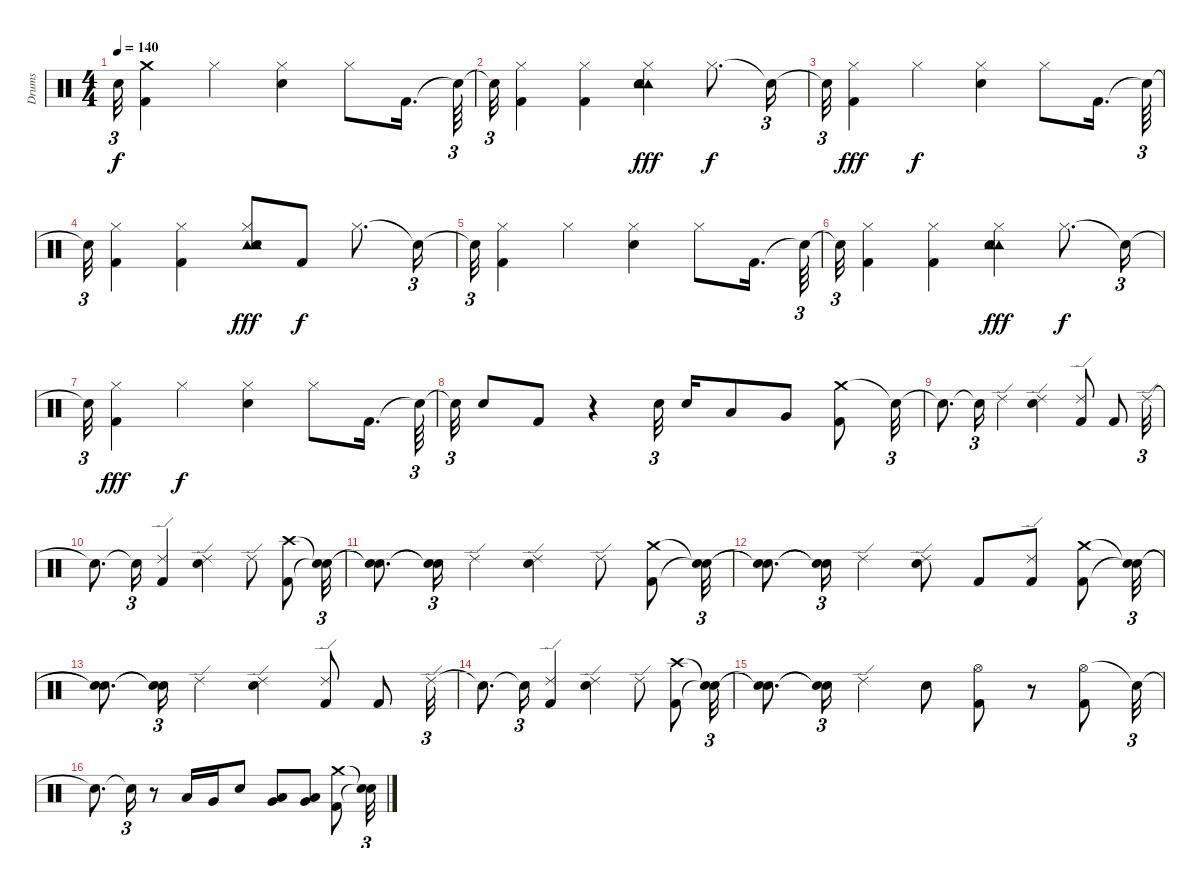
\track ("Drums" "Drums") {instrument percussion}
\staff {score}
\articulation defaults
\ts (4 4)
\tempo 140
\clef neutral
\ks c "Snare (hit)"{t}.32{tu (3 2) dy f}
("Crash medium (hit)" "Kick (hit) 2").4 "Hi-Hat (closed)".4 ("Hi-Hat (closed)" "Snare (hit) 2").4 "Hi-Hat (closed)".8 "Kick (hit) 2".16{d} "Snare (hit)"{t}.64{tu (3 2)} |
"Snare (hit)"{t}.32{tu (3 2)} ("Kick (hit) 2" "Hi-Hat (closed)").4 ("Kick (hit) 2" "Hi-Hat (closed)").4 ("Tambourine (hit)" "Tambourine (hit)" "Snare (hit) 2" "Hi-Hat (closed)").4{dy fff} "Hi-Hat (closed)".8{d dy f} "Snare (hit)"{t}.16{tu (3 2)} |
"Snare (hit)"{t}.32{tu (3 2)} ("Hi-Hat (closed)" "Kick (hit) 2").4{dy fff} "Hi-Hat (closed)".4{dy f} ("Hi-Hat (closed)" "Snare (hit) 2").4 "Hi-Hat (closed)".8 "Kick (hit) 2".16{d} "Snare (hit)"{t}.64{tu (3 2)} |
"Snare (hit)"{t}.32{tu (3 2)} ("Kick (hit) 2" "Hi-Hat (closed)").4 ("Kick (hit) 2" "Hi-Hat (closed)").4 ("Tambourine (hit)" "Tambourine (hit)" "Snare (hit) 2" "Hi-Hat (closed)").8{dy fff} "Kick (hit) 2".8{dy f} "Hi-Hat (closed)".8{d} "Snare (hit)"{t}.16{tu (3 2)} |
"Snare (hit)"{t}.32{tu (3 2)} ("Hi-Hat (closed)" "Kick (hit) 2").4 "Hi-Hat (closed)".4 ("Hi-Hat (closed)" "Snare (hit) 2").4 "Hi-Hat (closed)".8 "Kick (hit) 2".16{d} "Snare (hit)"{t}.64{tu (3 2)} |
"Snare (hit)"{t}.32{tu (3 2)} ("Kick (hit) 2" "Hi-Hat (closed)").4 ("Kick (hit) 2" "Hi-Hat (closed)").4 ("Tambourine (hit)" "Snare (hit) 2" "Tambourine (hit)" "Hi-Hat (closed)").4{dy fff} "Hi-Hat (closed)".8{d dy f} "Snare (hit)"{t}.16{tu (3 2)} |
"Snare (hit)"{t}.32{tu (3 2)} ("Hi-Hat (closed)" "Kick (hit) 2").4{dy fff} "Hi-Hat (closed)".4{dy f} ("Snare (hit) 2" "Hi-Hat (closed)").4 "Hi-Hat (closed)".8 "Kick (hit) 2".16{d} "Snare (hit)"{t}.64{tu (3 2)} |
"Snare (hit)"{t}.32{tu (3 2)} "Snare (hit) 2".8 "Kick (hit) 2".8 r.4 "Snare (hit) 2".32{tu (3 2)} "Snare (hit) 2".16 "Low Tom (hit)".8 "Very Low Tom (hit)".8 ("Crash medium (hit)" "Kick (hit) 2").8 "Snare (hit)"{t}.32{tu (3 2)} |
"Snare (hit)"{t}.8{d} "Snare (hit)"{t}.16{tu (3 2)} "Ride (edge) 2".4 ("Snare (hit) 2" "Ride (edge) 2").4 ("Ride (edge) 2" "Kick (hit) 2").8 "Kick (hit) 2".8 "Ride (edge) 2".32{tu (3 2)} |
"Snare (hit)"{t}.8{d} "Snare (hit)"{t}.16{tu (3 2)} ("Kick (hit) 2" "Ride (edge) 2").4 ("Ride (edge) 2" "Snare (hit) 2").4 "Ride (edge) 2".8 ("Crash high (hit)" "Kick (hit) 2").8 ("Snare (hit)"{t} "Snare (hit)"{t}).32{tu (3 2)} |
("Snare (hit)"{t} "Snare (hit)"{t}).8{d} ("Snare (hit)"{t} "Snare (hit)"{t}).16{tu (3 2)} "Ride (edge) 2".4 ("Snare (hit) 2" "Ride (edge) 2").4 "Ride (edge) 2".8 ("Crash medium (hit)" "Kick (hit) 2").8 ("Snare (hit)"{t} "Snare (hit)"{t}).32{tu (3 2)} |
("Snare (hit)"{t} "Snare (hit)"{t}).8{d} ("Snare (hit)"{t} "Snare (hit)"{t}).16{tu (3 2)} "Ride (edge) 2".4 ("Ride (edge) 2" "Snare (hit) 2").8 "Kick (hit) 2".8 ("Ride (edge) 2" "Kick (hit) 2").8 ("Crash medium (hit)" "Kick (hit) 2").8 ("Snare (hit)"{t} "Snare (hit)"{t}).32{tu (3 2)} |
("Snare (hit)"{t} "Snare (hit)"{t}).8{d} ("Snare (hit)"{t} "Snare (hit)"{t}).16{tu (3 2)} "Ride (edge) 2".4 ("Snare (hit) 2" "Ride (edge) 2").4 ("Kick (hit) 2" "Ride (edge) 2").8 "Kick (hit) 2".8 "Ride (edge) 2".32{tu (3 2)} |
"Snare (hit)"{t}.8{d} "Snare (hit)"{t}.16{tu (3 2)} ("Ride (edge) 2" "Kick (hit) 2").4 ("Ride (edge) 2" "Snare (hit) 2").4 "Ride (edge) 2".8 ("Crash high (hit)" "Kick (hit) 2").8 ("Snare (hit)"{t} "Snare (hit)"{t}).32{tu (3 2)} |
("Snare (hit)"{t} "Snare (hit)"{t}).8{d} ("Snare (hit)"{t} "Snare (hit)"{t}).16{tu (3 2)} "Ride (edge) 2".4 "Snare (hit) 2".8 ("Hi-Hat (open)" "Kick (hit) 2").8 r.8 ("Hi-Hat (open)" "Kick (hit) 2").8 "Snare (hit)"{t}.32{tu (3 2)} |
"Snare (hit)"{t}.8{d} "Snare (hit)"{t}.16{tu (3 2)} r.8 "Low Tom (hit)".16 "Very Low Tom (hit)".16 "Snare (hit) 2".8 ("Low Tom (hit)" "Very Low Tom (hit)").8 ("Very Low Tom (hit)" "Low Floor Tom (hit)").8 ("Kick (hit) 2" "Crash medium (hit)").8 ("Snare (hit)"{t} "Snare (hit)"{t}).32{tu (3 2)}
